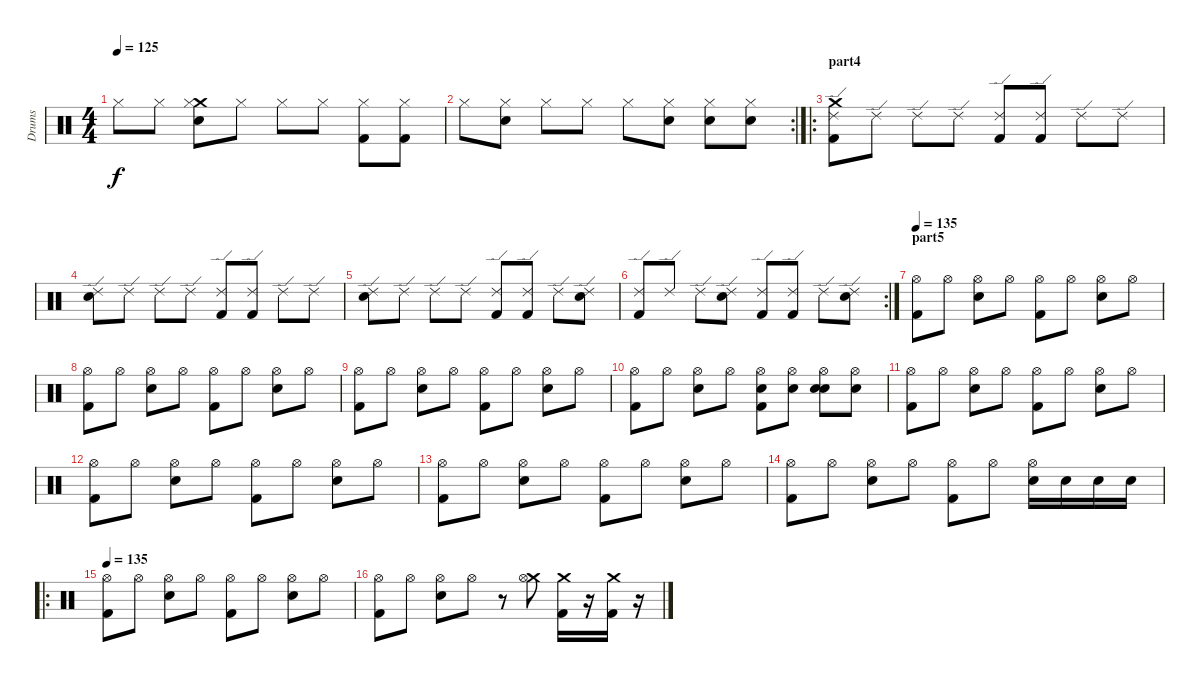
\track ("Drums" "Drums") {instrument percussion}
\staff {score}
\articulation defaults
\ts (4 4)
\tempo 125
\clef neutral
\ks c "Hi-Hat (closed)".8{dy f} "Hi-Hat (closed)".8
("Crash medium (hit)" "Snare (hit) 2" "Hi-Hat (closed)").8 "Hi-Hat (closed)".8 "Hi-Hat (closed)".8 "Hi-Hat (closed)".8 ("Kick (hit) 2" "Hi-Hat (closed)").8 ("Kick (hit) 2" "Hi-Hat (closed)").8 |
\rc 2 "Hi-Hat (closed)".8
("Snare (hit) 2" "Hi-Hat (closed)").8 "Hi-Hat (closed)".8 "Hi-Hat (closed)".8 "Hi-Hat (closed)".8 ("Snare (hit) 2" "Hi-Hat (closed)").8 ("Snare (hit) 2" "Hi-Hat (closed)").8 ("Snare (hit) 2" "Hi-Hat (closed)").8 |
\ro
\section ("" "part4")
("Kick (hit) 2" "Crash medium (hit)" "Ride (edge) 2").8 "Ride (edge) 2".8 "Ride (edge) 2".8 "Ride (edge) 2".8 ("Kick (hit) 2" "Ride (edge) 2").8 ("Kick (hit) 2" "Ride (edge) 2").8 "Ride (edge) 2".8 "Ride (edge) 2".8 |
("Snare (hit) 2" "Ride (edge) 2").8 "Ride (edge) 2".8 "Ride (edge) 2".8 "Ride (edge) 2".8 ("Kick (hit) 2" "Ride (edge) 2").8 ("Kick (hit) 2" "Ride (edge) 2").8 "Ride (edge) 2".8 "Ride (edge) 2".8 |
("Snare (hit) 2" "Ride (edge) 2").8 "Ride (edge) 2".8 "Ride (edge) 2".8 "Ride (edge) 2".8 ("Kick (hit) 2" "Ride (edge) 2").8 ("Kick (hit) 2" "Ride (edge) 2").8 "Ride (edge) 2".8 ("Snare (hit) 2" "Ride (edge) 2").8 |
\rc 2
("Kick (hit) 2" "Ride (edge) 2").8 "Ride (edge) 2".8 "Ride (edge) 2".8 ("Snare (hit) 2" "Ride (edge) 2").8 ("Kick (hit) 2" "Ride (edge) 2").8 ("Kick (hit) 2" "Ride (edge) 2").8 "Ride (edge) 2".8 ("Snare (hit) 2" "Ride (edge) 2").8 |
\section ("" "part5")
\tempo 135
("Kick (hit) 2" "Hi-Hat (open)").8 "Hi-Hat (open)".8 ("Snare (hit) 2" "Hi-Hat (open)").8 "Hi-Hat (open)".8 ("Kick (hit) 2" "Hi-Hat (open)").8 "Hi-Hat (open)".8 ("Snare (hit) 2" "Hi-Hat (open)").8 "Hi-Hat (open)".8 |
("Kick (hit) 2" "Hi-Hat (open)").8 "Hi-Hat (open)".8 ("Snare (hit) 2" "Hi-Hat (open)").8 "Hi-Hat (open)".8 ("Kick (hit) 2" "Hi-Hat (open)").8 "Hi-Hat (open)".8 ("Snare (hit) 2" "Hi-Hat (open)").8 "Hi-Hat (open)".8 |
("Kick (hit) 2" "Hi-Hat (open)").8 "Hi-Hat (open)".8 ("Snare (hit) 2" "Hi-Hat (open)").8 "Hi-Hat (open)".8 ("Kick (hit) 2" "Hi-Hat (open)").8 "Hi-Hat (open)".8 ("Snare (hit) 2" "Hi-Hat (open)").8 "Hi-Hat (open)".8 |
("Kick (hit) 2" "Hi-Hat (open)").8 "Hi-Hat (open)".8 ("Snare (hit) 2" "Hi-Hat (open)").8 "Hi-Hat (open)".8 ("Snare (hit) 2" "Kick (hit) 2" "Hi-Hat (open)").8 ("Snare (hit) 2" "Hi-Hat (open)").8 ("Snare (hit) 2" "Snare (hit) 2" "Hi-Hat (open)").8 ("Snare (hit) 2" "Hi-Hat (open)").8 |
("Kick (hit) 2" "Hi-Hat (open)").8 "Hi-Hat (open)".8 ("Snare (hit) 2" "Hi-Hat (open)").8 "Hi-Hat (open)".8 ("Kick (hit) 2" "Hi-Hat (open)").8 "Hi-Hat (open)".8 ("Snare (hit) 2" "Hi-Hat (open)").8 "Hi-Hat (open)".8 |
("Kick (hit) 2" "Hi-Hat (open)").8 "Hi-Hat (open)".8 ("Snare (hit) 2" "Hi-Hat (open)").8 "Hi-Hat (open)".8 ("Kick (hit) 2" "Hi-Hat (open)").8 "Hi-Hat (open)".8 ("Snare (hit) 2" "Hi-Hat (open)").8 "Hi-Hat (open)".8 |
("Kick (hit) 2" "Hi-Hat (open)").8 "Hi-Hat (open)".8 ("Snare (hit) 2" "Hi-Hat (open)").8 "Hi-Hat (open)".8 ("Kick (hit) 2" "Hi-Hat (open)").8 "Hi-Hat (open)".8 ("Snare (hit) 2" "Hi-Hat (open)").8 "Hi-Hat (open)".8 |
("Kick (hit) 2" "Hi-Hat (open)").8 "Hi-Hat (open)".8 ("Snare (hit) 2" "Hi-Hat (open)").8 "Hi-Hat (open)".8 ("Kick (hit) 2" "Hi-Hat (open)").8 "Hi-Hat (open)".8 ("Snare (hit) 2" "Hi-Hat (open)").16 "Snare (hit) 2".16 "Snare (hit) 2".16 "Snare (hit) 2".16 |
\ro
\tempo 135
("Kick (hit) 2" "Hi-Hat (open)").8 "Hi-Hat (open)".8 ("Snare (hit) 2" "Hi-Hat (open)").8 "Hi-Hat (open)".8 ("Kick (hit) 2" "Hi-Hat (open)").8 "Hi-Hat (open)".8 ("Snare (hit) 2" "Hi-Hat (open)").8 "Hi-Hat (open)".8 |
("Kick (hit) 2" "Hi-Hat (open)").8 "Hi-Hat (open)".8 ("Snare (hit) 2" "Hi-Hat (open)").8 "Hi-Hat (open)".8 r.8 ("Crash medium (hit)" "Hi-Hat (open)").8 ("Crash medium (hit)" "Kick (hit) 2").16 r.16 ("Crash medium (hit)" "Kick (hit) 2").16 r.16
